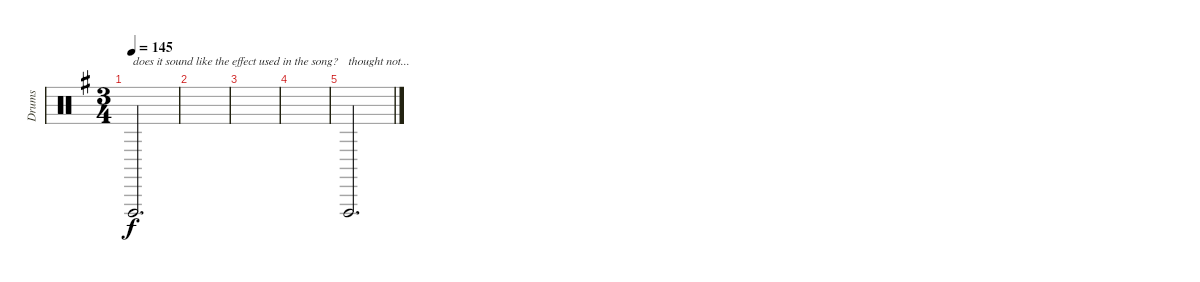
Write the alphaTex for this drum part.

\track ("Drums" "Drums") {instrument percussion}
\staff {score}
\articulation defaults
\ts (3 4)
\tempo 145
\clef neutral
\ks g "Vibraslap (hit)".2{d txt "does it sound like the effect used in the song?" dy f}
|
|
|
|
"Vibraslap (hit)".2{d txt "thought not..."}
